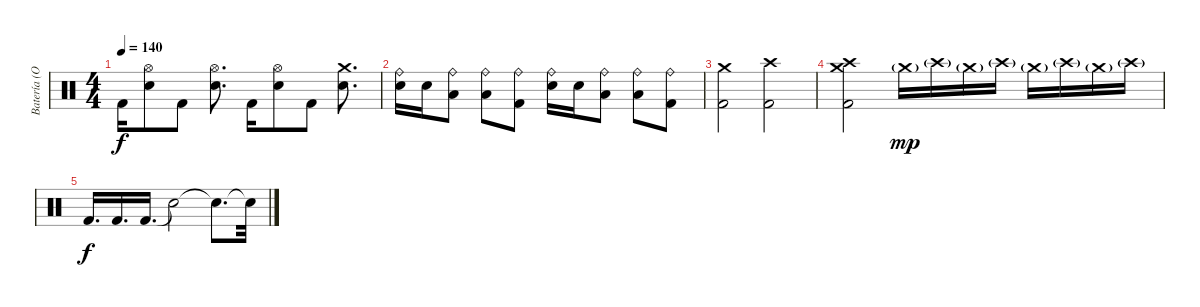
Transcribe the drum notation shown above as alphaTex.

\track ("Batería (Oxi)" "Batería (O") {instrument percussion}
\staff {score}
\articulation defaults
\ts (4 4)
\tempo 140
\clef neutral
\ks c "Kick (hit) 2".16{dy f}
("Hi-Hat (open)" "Electric Snare (hit)").8 "Kick (hit) 2".8 ("Hi-Hat (open)" "Electric Snare (hit)").8{d} "Kick (hit) 2".16 ("Hi-Hat (open)" "Electric Snare (hit)").8 "Kick (hit) 2".8 ("Crash medium (hit)" "Electric Snare (hit)").8{d} |
("Ride (bell)" "Electric Snare (hit)").16 "Electric Snare (hit)".16 ("Ride (bell)" "Low Tom (hit)").8 ("Ride (bell)" "Low Tom (hit)").8 ("Ride (bell)" "Kick (hit) 2").8 ("Ride (bell)" "Electric Snare (hit)").16 "Electric Snare (hit)".16 ("Ride (bell)" "Low Tom (hit)").8 ("Ride (bell)" "Low Tom (hit)").8 ("Ride (bell)" "Kick (hit) 2").8 |
("Crash medium (hit)" "Kick (hit) 2").2 ("Crash high (hit)" "Kick (hit) 2").2 |
("Crash high (hit)" "Crash medium (hit)" "Kick (hit) 2").2 "Crash medium (hit)"{g}.16{dy mp} "Crash high (hit)"{g}.16 "Crash medium (hit)"{g}.16 "Crash high (hit)"{g}.16 "Crash medium (hit)"{g}.16 "Crash high (hit)"{g}.16 "Crash medium (hit)"{g}.16 "Crash high (hit)"{g}.16 |
"Kick (hit) 2".16{d dy f} "Kick (hit) 2".16{d} "Kick (hit) 2".16{d} "Snare (hit)"{t}.2 "Snare (hit)"{t}.8{d} "Snare (hit)"{t}.32
